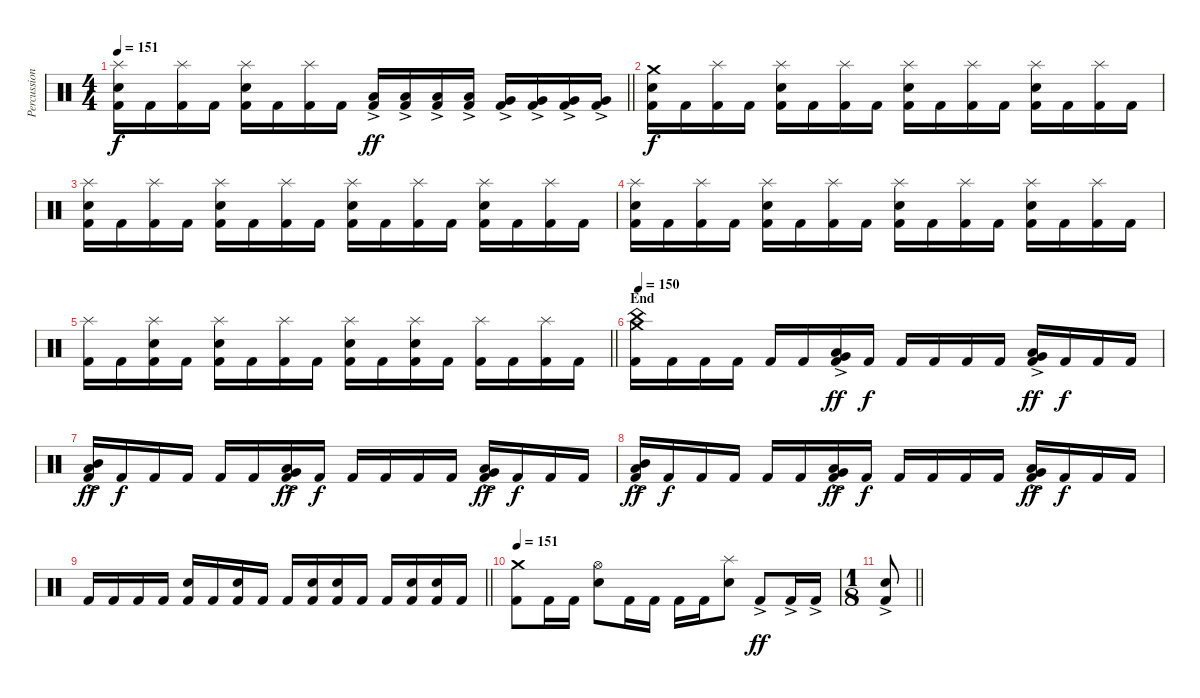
\track ("Percussion" "Percussion") {instrument percussion}
\staff {score}
\articulation defaults
\ts (4 4)
\tempo 151
\clef neutral
\barLineRight lightlight
\ks c
("Kick (hit) 2" "Snare (hit) 2" "Splash (hit)").16{dy f} "Kick (hit) 2".16 ("Kick (hit) 2" "Splash (hit)").16 "Kick (hit) 2".16 ("Kick (hit) 2" "Snare (hit) 2" "Splash (hit)").16 "Kick (hit) 2".16 ("Kick (hit) 2" "Splash (hit)").16 "Kick (hit) 2".16 ("Kick (hit) 2" "Low Tom (hit)"{ac}).16{dy ff} ("Kick (hit) 2" "Low Tom (hit)"{ac}).16 ("Kick (hit) 2" "Low Tom (hit)"{ac}).16 ("Kick (hit) 2" "Low Tom (hit)"{ac}).16 ("Kick (hit) 2" "Very Low Tom (hit)"{ac}).16 ("Kick (hit) 2" "Very Low Tom (hit)"{ac}).16 ("Kick (hit) 2" "Very Low Tom (hit)"{ac}).16 ("Kick (hit) 2" "Very Low Tom (hit)"{ac}).16 |
\section ("" "")
("Kick (hit) 2" "Snare (hit) 2" "Crash medium (hit)").16{dy f} "Kick (hit) 2".16 ("Kick (hit) 2" "Splash (hit)").16 "Kick (hit) 2".16 ("Kick (hit) 2" "Snare (hit) 2" "Splash (hit)").16 "Kick (hit) 2".16 ("Kick (hit) 2" "Splash (hit)").16 "Kick (hit) 2".16 ("Kick (hit) 2" "Snare (hit) 2" "Splash (hit)").16 "Kick (hit) 2".16 ("Kick (hit) 2" "Splash (hit)").16 "Kick (hit) 2".16 ("Kick (hit) 2" "Snare (hit) 2" "Splash (hit)").16 "Kick (hit) 2".16 ("Kick (hit) 2" "Splash (hit)").16 "Kick (hit) 2".16 |
("Kick (hit) 2" "Snare (hit) 2" "Splash (hit)").16 "Kick (hit) 2".16 ("Kick (hit) 2" "Splash (hit)").16 "Kick (hit) 2".16 ("Kick (hit) 2" "Snare (hit) 2" "Splash (hit)").16 "Kick (hit) 2".16 ("Kick (hit) 2" "Splash (hit)").16 "Kick (hit) 2".16 ("Kick (hit) 2" "Snare (hit) 2" "Splash (hit)").16 "Kick (hit) 2".16 ("Kick (hit) 2" "Splash (hit)").16 "Kick (hit) 2".16 ("Kick (hit) 2" "Snare (hit) 2" "Splash (hit)").16 "Kick (hit) 2".16 ("Kick (hit) 2" "Splash (hit)").16 "Kick (hit) 2".16 |
("Kick (hit) 2" "Snare (hit) 2" "Splash (hit)").16 "Kick (hit) 2".16 ("Kick (hit) 2" "Splash (hit)").16 "Kick (hit) 2".16 ("Kick (hit) 2" "Snare (hit) 2" "Splash (hit)").16 "Kick (hit) 2".16 ("Kick (hit) 2" "Splash (hit)").16 "Kick (hit) 2".16 ("Kick (hit) 2" "Snare (hit) 2" "Splash (hit)").16 "Kick (hit) 2".16 ("Kick (hit) 2" "Splash (hit)").16 "Kick (hit) 2".16 ("Kick (hit) 2" "Snare (hit) 2" "Splash (hit)").16 "Kick (hit) 2".16 ("Kick (hit) 2" "Splash (hit)").16 "Kick (hit) 2".16 |
\barLineRight lightlight
("Kick (hit) 2" "Splash (hit)").16 "Kick (hit) 2".16 ("Kick (hit) 2" "Snare (hit) 2" "Splash (hit)").16 "Kick (hit) 2".16 ("Kick (hit) 2" "Snare (hit) 2" "Splash (hit)").16 "Kick (hit) 2".16 ("Kick (hit) 2" "Splash (hit)").16 "Kick (hit) 2".16 ("Kick (hit) 2" "Snare (hit) 2" "Splash (hit)").16 "Kick (hit) 2".16 ("Kick (hit) 2" "Snare (hit) 2" "Splash (hit)").16 "Kick (hit) 2".16 ("Kick (hit) 2" "Splash (hit)").16 "Kick (hit) 2".16 ("Kick (hit) 2" "Splash (hit)").16 "Kick (hit) 2".16 |
\section ("" "End")
\tempo 150
("Kick (hit) 2" "China (hit)" "Crash medium (hit)").16 "Kick (hit) 2".16 "Kick (hit) 2".16 "Kick (hit) 2".16 "Kick (hit) 2".16 "Kick (hit) 2".16 ("Kick (hit) 2" "Very Low Tom (hit)"{ac} "Low Tom (hit)"{ac}).16{dy ff} "Kick (hit) 2".16{dy f} "Kick (hit) 2".16 "Kick (hit) 2".16 "Kick (hit) 2".16 "Kick (hit) 2".16 ("Kick (hit) 2" "Low Floor Tom (hit)"{ac} "Very Low Tom (hit)"{ac}).16{dy ff} "Kick (hit) 2".16{dy f} "Kick (hit) 2".16 "Kick (hit) 2".16 |
("Kick (hit) 2" "Low Tom (hit)"{ac} "Mid Tom (hit)"{ac}).16{dy ff} "Kick (hit) 2".16{dy f} "Kick (hit) 2".16 "Kick (hit) 2".16 "Kick (hit) 2".16 "Kick (hit) 2".16 ("Kick (hit) 2" "Very Low Tom (hit)"{ac} "Low Tom (hit)"{ac}).16{dy ff} "Kick (hit) 2".16{dy f} "Kick (hit) 2".16 "Kick (hit) 2".16 "Kick (hit) 2".16 "Kick (hit) 2".16 ("Kick (hit) 2" "Low Floor Tom (hit)"{ac} "Very Low Tom (hit)"{ac}).16{dy ff} "Kick (hit) 2".16{dy f} "Kick (hit) 2".16 "Kick (hit) 2".16 |
("Kick (hit) 2" "Low Tom (hit)"{ac} "Mid Tom (hit)"{ac}).16{dy ff} "Kick (hit) 2".16{dy f} "Kick (hit) 2".16 "Kick (hit) 2".16 "Kick (hit) 2".16 "Kick (hit) 2".16 ("Kick (hit) 2" "Very Low Tom (hit)"{ac} "Low Tom (hit)"{ac}).16{dy ff} "Kick (hit) 2".16{dy f} "Kick (hit) 2".16 "Kick (hit) 2".16 "Kick (hit) 2".16 "Kick (hit) 2".16 ("Kick (hit) 2" "Low Floor Tom (hit)"{ac} "Very Low Tom (hit)"{ac}).16{dy ff} "Kick (hit) 2".16{dy f} "Kick (hit) 2".16 "Kick (hit) 2".16 |
\barLineRight lightlight "Kick (hit) 2".16 "Kick (hit) 2".16 "Kick (hit) 2".16 "Kick (hit) 2".16
("Kick (hit) 2" "Snare (hit) 2").16 "Kick (hit) 2".16 ("Kick (hit) 2" "Snare (hit) 2").16 "Kick (hit) 2".16 "Kick (hit) 2".16 ("Kick (hit) 2" "Snare (hit) 2").16 ("Kick (hit) 2" "Snare (hit) 2").16 "Kick (hit) 2".16 "Kick (hit) 2".16 ("Kick (hit) 2" "Snare (hit) 2").16 ("Kick (hit) 2" "Snare (hit) 2").16 "Kick (hit) 2".16 |
\section ("" "")
\tempo 151
("Kick (hit) 2" "Crash medium (hit)").8 "Kick (hit) 2".16 "Kick (hit) 2".16 ("Snare (hit) 2" "Hi-Hat (open)").8 "Kick (hit) 2".16 "Kick (hit) 2".16 "Kick (hit) 2".16 "Kick (hit) 2".16 ("Snare (hit) 2" "Splash (hit)").8 "Kick (hit) 2"{ac}.8{dy ff} "Kick (hit) 2"{ac}.16 "Kick (hit) 2"{ac}.16 |
\ts (1 8)
\barLineRight lightlight
("Kick (hit) 2" "Snare (hit) 2"{ac}).8
